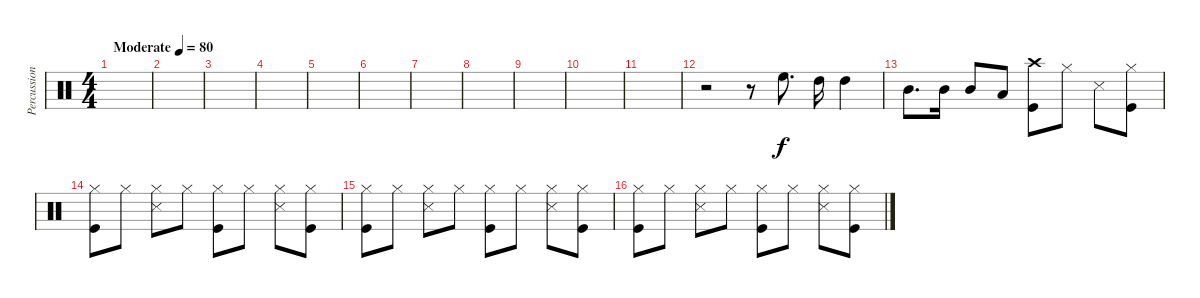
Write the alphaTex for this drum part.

\track ("Percussion" "Percussion") {instrument percussion}
\staff {score}
\articulation defaults
\ts (4 4)
\tempo (80 "Moderate")
\clef neutral
\ks c
|
|
|
|
|
|
|
|
|
|
|
r.2 r.8 "High Floor Tom (hit)".8{d} "High Tom (hit)".16 "High Tom (hit)".4 |
"Mid Tom (hit)".8{d} "Mid Tom (hit)".16 "Mid Tom (hit)".8 "Low Tom (hit)".8 ("Kick (hit)" "Crash high (hit)").8{volume 9} "Hi-Hat (closed)".8 "Snare (side stick) 3".8 ("Hi-Hat (closed)" "Kick (hit)").8 |
("Hi-Hat (closed)" "Kick (hit)").8 "Hi-Hat (closed)".8 ("Hi-Hat (closed)" "Snare (side stick) 3").8 "Hi-Hat (closed)".8 ("Hi-Hat (closed)" "Kick (hit)").8 "Hi-Hat (closed)".8 ("Hi-Hat (closed)" "Snare (side stick) 3").8 ("Hi-Hat (closed)" "Kick (hit)").8 |
("Hi-Hat (closed)" "Kick (hit)").8 "Hi-Hat (closed)".8 ("Hi-Hat (closed)" "Snare (side stick) 3").8 "Hi-Hat (closed)".8 ("Hi-Hat (closed)" "Kick (hit)").8 "Hi-Hat (closed)".8 ("Hi-Hat (closed)" "Snare (side stick) 3").8 ("Hi-Hat (closed)" "Kick (hit)").8 |
("Hi-Hat (closed)" "Kick (hit)").8 "Hi-Hat (closed)".8 ("Hi-Hat (closed)" "Snare (side stick) 3").8 "Hi-Hat (closed)".8 ("Hi-Hat (closed)" "Kick (hit)").8 "Hi-Hat (closed)".8 ("Hi-Hat (closed)" "Snare (side stick) 3").8 ("Hi-Hat (closed)" "Kick (hit)").8
